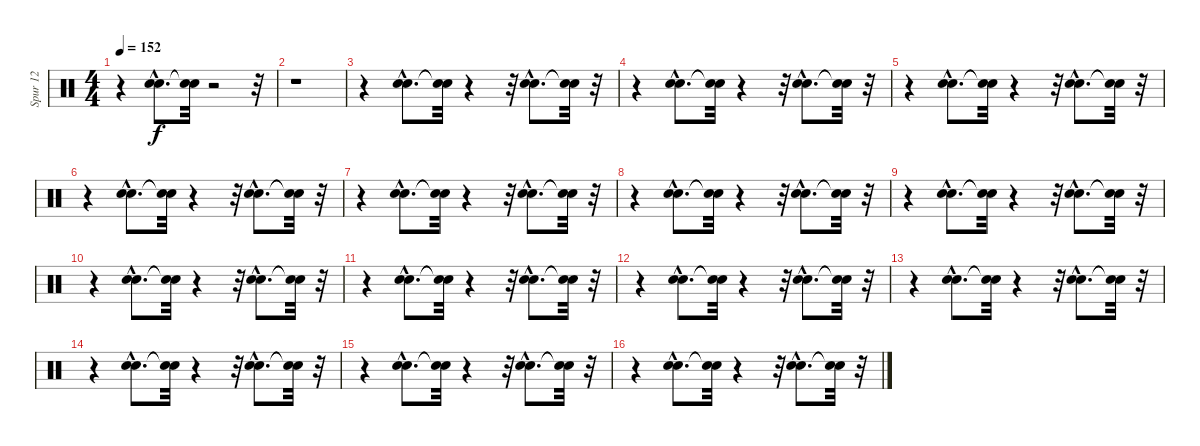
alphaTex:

\track ("Spur 12" "Spur 12") {instrument percussion}
\staff {score}
\articulation defaults
\ts (4 4)
\tempo 152
\clef neutral
\ks c
r.4{dy f} ("Hand Clap (hit)"{hac} "Electric Snare (hit)"{hac}).8{d} ("Snare (hit)"{t} "Snare (hit)"{t}).32 r.2 r.32 |
r.1 |
r.4 ("Hand Clap (hit)"{hac} "Electric Snare (hit)"{hac}).8{d} ("Snare (hit)"{t} "Snare (hit)"{t}).32 r.4 r.32 ("Hand Clap (hit)"{hac} "Electric Snare (hit)"{hac}).8{d} ("Snare (hit)"{t} "Snare (hit)"{t}).32 r.32 |
r.4 ("Hand Clap (hit)"{hac} "Electric Snare (hit)"{hac}).8{d} ("Snare (hit)"{t} "Snare (hit)"{t}).32 r.4 r.32 ("Hand Clap (hit)"{hac} "Electric Snare (hit)"{hac}).8{d} ("Snare (hit)"{t} "Snare (hit)"{t}).32 r.32 |
r.4 ("Hand Clap (hit)"{hac} "Electric Snare (hit)"{hac}).8{d} ("Snare (hit)"{t} "Snare (hit)"{t}).32 r.4 r.32 ("Hand Clap (hit)"{hac} "Electric Snare (hit)"{hac}).8{d} ("Snare (hit)"{t} "Snare (hit)"{t}).32 r.32 |
r.4 ("Hand Clap (hit)"{hac} "Electric Snare (hit)"{hac}).8{d} ("Snare (hit)"{t} "Snare (hit)"{t}).32 r.4 r.32 ("Hand Clap (hit)"{hac} "Electric Snare (hit)"{hac}).8{d} ("Snare (hit)"{t} "Snare (hit)"{t}).32 r.32 |
r.4 ("Hand Clap (hit)"{hac} "Electric Snare (hit)"{hac}).8{d} ("Snare (hit)"{t} "Snare (hit)"{t}).32 r.4 r.32 ("Hand Clap (hit)"{hac} "Electric Snare (hit)"{hac}).8{d} ("Snare (hit)"{t} "Snare (hit)"{t}).32 r.32 |
r.4 ("Hand Clap (hit)"{hac} "Electric Snare (hit)"{hac}).8{d} ("Snare (hit)"{t} "Snare (hit)"{t}).32 r.4 r.32 ("Hand Clap (hit)"{hac} "Electric Snare (hit)"{hac}).8{d} ("Snare (hit)"{t} "Snare (hit)"{t}).32 r.32 |
r.4 ("Hand Clap (hit)"{hac} "Electric Snare (hit)"{hac}).8{d} ("Snare (hit)"{t} "Snare (hit)"{t}).32 r.4 r.32 ("Hand Clap (hit)"{hac} "Electric Snare (hit)"{hac}).8{d} ("Snare (hit)"{t} "Snare (hit)"{t}).32 r.32 |
r.4 ("Hand Clap (hit)"{hac} "Electric Snare (hit)"{hac}).8{d} ("Snare (hit)"{t} "Snare (hit)"{t}).32 r.4 r.32 ("Hand Clap (hit)"{hac} "Electric Snare (hit)"{hac}).8{d} ("Snare (hit)"{t} "Snare (hit)"{t}).32 r.32 |
r.4 ("Hand Clap (hit)"{hac} "Electric Snare (hit)"{hac}).8{d} ("Snare (hit)"{t} "Snare (hit)"{t}).32 r.4 r.32 ("Hand Clap (hit)"{hac} "Electric Snare (hit)"{hac}).8{d} ("Snare (hit)"{t} "Snare (hit)"{t}).32 r.32 |
r.4 ("Hand Clap (hit)"{hac} "Electric Snare (hit)"{hac}).8{d} ("Snare (hit)"{t} "Snare (hit)"{t}).32 r.4 r.32 ("Hand Clap (hit)"{hac} "Electric Snare (hit)"{hac}).8{d} ("Snare (hit)"{t} "Snare (hit)"{t}).32 r.32 |
r.4 ("Hand Clap (hit)"{hac} "Electric Snare (hit)"{hac}).8{d} ("Snare (hit)"{t} "Snare (hit)"{t}).32 r.4 r.32 ("Hand Clap (hit)"{hac} "Electric Snare (hit)"{hac}).8{d} ("Snare (hit)"{t} "Snare (hit)"{t}).32 r.32 |
r.4 ("Hand Clap (hit)"{hac} "Electric Snare (hit)"{hac}).8{d} ("Snare (hit)"{t} "Snare (hit)"{t}).32 r.4 r.32 ("Hand Clap (hit)"{hac} "Electric Snare (hit)"{hac}).8{d} ("Snare (hit)"{t} "Snare (hit)"{t}).32 r.32 |
r.4 ("Hand Clap (hit)"{hac} "Electric Snare (hit)"{hac}).8{d} ("Snare (hit)"{t} "Snare (hit)"{t}).32 r.4 r.32 ("Hand Clap (hit)"{hac} "Electric Snare (hit)"{hac}).8{d} ("Snare (hit)"{t} "Snare (hit)"{t}).32 r.32 |
r.4 ("Hand Clap (hit)"{hac} "Electric Snare (hit)"{hac}).8{d} ("Snare (hit)"{t} "Snare (hit)"{t}).32 r.4 r.32 ("Hand Clap (hit)"{hac} "Electric Snare (hit)"{hac}).8{d} ("Snare (hit)"{t} "Snare (hit)"{t}).32 r.32
